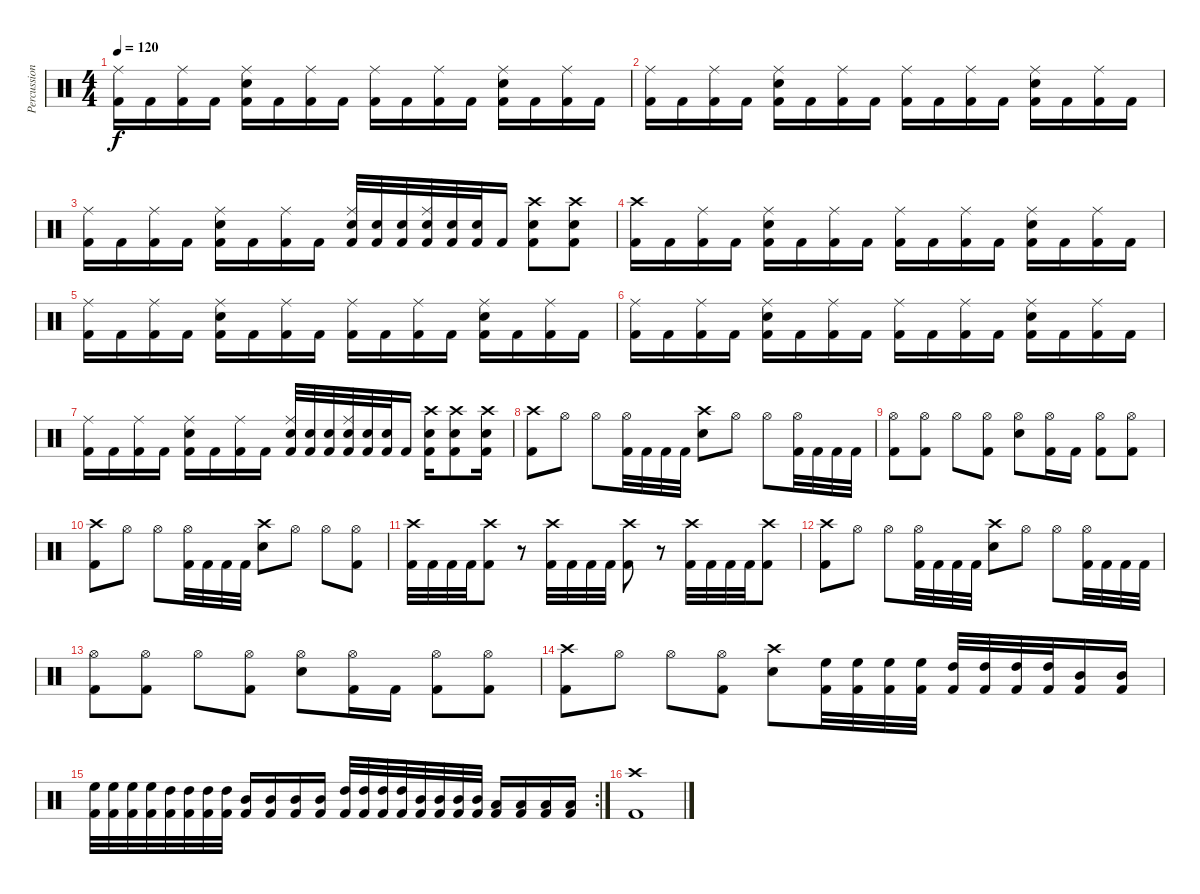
\track ("Percussion" "Percussion") {instrument percussion}
\staff {score}
\articulation defaults
\ts (4 4)
\tempo 120
\clef neutral
\ks c
("Kick (hit) 2" "Ride (middle)").16{dy f} "Kick (hit) 2".16 ("Kick (hit) 2" "Ride (middle)").16 "Kick (hit) 2".16 ("Kick (hit) 2" "Snare (hit) 2" "Ride (middle)").16 "Kick (hit) 2".16 ("Kick (hit) 2" "Ride (middle)").16 "Kick (hit) 2".16 ("Kick (hit) 2" "Ride (middle)").16 "Kick (hit) 2".16 ("Kick (hit) 2" "Ride (middle)").16 "Kick (hit) 2".16 ("Kick (hit) 2" "Snare (hit) 2" "Ride (middle)").16 "Kick (hit) 2".16 ("Kick (hit) 2" "Ride (middle)").16 "Kick (hit) 2".16 |
("Kick (hit) 2" "Ride (middle)").16 "Kick (hit) 2".16 ("Kick (hit) 2" "Ride (middle)").16 "Kick (hit) 2".16 ("Kick (hit) 2" "Snare (hit) 2" "Ride (middle)").16 "Kick (hit) 2".16 ("Kick (hit) 2" "Ride (middle)").16 "Kick (hit) 2".16 ("Kick (hit) 2" "Ride (middle)").16 "Kick (hit) 2".16 ("Kick (hit) 2" "Ride (middle)").16 "Kick (hit) 2".16 ("Kick (hit) 2" "Snare (hit) 2" "Ride (middle)").16 "Kick (hit) 2".16 ("Kick (hit) 2" "Ride (middle)").16 "Kick (hit) 2".16 |
("Kick (hit) 2" "Ride (middle)").16 "Kick (hit) 2".16 ("Kick (hit) 2" "Ride (middle)").16 "Kick (hit) 2".16 ("Kick (hit) 2" "Snare (hit) 2" "Ride (middle)").16 "Kick (hit) 2".16 ("Kick (hit) 2" "Ride (middle)").16 "Kick (hit) 2".16 ("Kick (hit) 2" "Snare (hit) 2" "Ride (middle)").32 ("Kick (hit) 2" "Snare (hit) 2").32 ("Kick (hit) 2" "Snare (hit) 2").32 ("Kick (hit) 2" "Snare (hit) 2" "Ride (middle)").32 ("Kick (hit) 2" "Snare (hit) 2").32 ("Kick (hit) 2" "Snare (hit) 2").32 "Kick (hit) 2".16 ("Kick (hit) 2" "Snare (hit) 2" "Crash high (hit)").8 ("Kick (hit) 2" "Snare (hit) 2" "Crash high (hit)").8 |
("Kick (hit) 2" "Crash high (hit)").16 "Kick (hit) 2".16 ("Kick (hit) 2" "Ride (middle)").16 "Kick (hit) 2".16 ("Kick (hit) 2" "Snare (hit) 2" "Ride (middle)").16 "Kick (hit) 2".16 ("Kick (hit) 2" "Ride (middle)").16 "Kick (hit) 2".16 ("Kick (hit) 2" "Ride (middle)").16 "Kick (hit) 2".16 ("Kick (hit) 2" "Ride (middle)").16 "Kick (hit) 2".16 ("Kick (hit) 2" "Snare (hit) 2" "Ride (middle)").16 "Kick (hit) 2".16 ("Kick (hit) 2" "Ride (middle)").16 "Kick (hit) 2".16 |
("Kick (hit) 2" "Ride (middle)").16 "Kick (hit) 2".16 ("Kick (hit) 2" "Ride (middle)").16 "Kick (hit) 2".16 ("Kick (hit) 2" "Snare (hit) 2" "Ride (middle)").16 "Kick (hit) 2".16 ("Kick (hit) 2" "Ride (middle)").16 "Kick (hit) 2".16 ("Kick (hit) 2" "Ride (middle)").16 "Kick (hit) 2".16 ("Kick (hit) 2" "Ride (middle)").16 "Kick (hit) 2".16 ("Kick (hit) 2" "Snare (hit) 2" "Ride (middle)").16 "Kick (hit) 2".16 ("Kick (hit) 2" "Ride (middle)").16 "Kick (hit) 2".16 |
("Kick (hit) 2" "Ride (middle)").16 "Kick (hit) 2".16 ("Kick (hit) 2" "Ride (middle)").16 "Kick (hit) 2".16 ("Kick (hit) 2" "Snare (hit) 2" "Ride (middle)").16 "Kick (hit) 2".16 ("Kick (hit) 2" "Ride (middle)").16 "Kick (hit) 2".16 ("Kick (hit) 2" "Ride (middle)").16 "Kick (hit) 2".16 ("Kick (hit) 2" "Ride (middle)").16 "Kick (hit) 2".16 ("Kick (hit) 2" "Snare (hit) 2" "Ride (middle)").16 "Kick (hit) 2".16 ("Kick (hit) 2" "Ride (middle)").16 "Kick (hit) 2".16 |
("Kick (hit) 2" "Ride (middle)").16 "Kick (hit) 2".16 ("Kick (hit) 2" "Ride (middle)").16 "Kick (hit) 2".16 ("Kick (hit) 2" "Snare (hit) 2" "Ride (middle)").16 "Kick (hit) 2".16 ("Kick (hit) 2" "Ride (middle)").16 "Kick (hit) 2".16 ("Kick (hit) 2" "Snare (hit) 2" "Ride (middle)").32 ("Kick (hit) 2" "Snare (hit) 2").32 ("Kick (hit) 2" "Snare (hit) 2").32 ("Kick (hit) 2" "Snare (hit) 2" "Ride (middle)").32 ("Kick (hit) 2" "Snare (hit) 2").32 ("Kick (hit) 2" "Snare (hit) 2").32 "Kick (hit) 2".16 ("Kick (hit) 2" "Snare (hit) 2" "Crash high (hit)").16 ("Kick (hit) 2" "Snare (hit) 2" "Crash high (hit)").8 ("Kick (hit) 2" "Snare (hit) 2" "Crash high (hit)").16 |
("Kick (hit) 2" "Crash high (hit)").8 "Hi-Hat (open)".8 "Hi-Hat (open)".8 ("Kick (hit) 2" "Hi-Hat (open)").32 "Kick (hit) 2".32 "Kick (hit) 2".32 "Kick (hit) 2".32 ("Snare (hit) 2" "Crash high (hit)").8 "Hi-Hat (open)".8 "Hi-Hat (open)".8 ("Kick (hit) 2" "Hi-Hat (open)").32 "Kick (hit) 2".32 "Kick (hit) 2".32 "Kick (hit) 2".32 |
("Kick (hit) 2" "Hi-Hat (open)").8 ("Kick (hit) 2" "Hi-Hat (open)").8 "Hi-Hat (open)".8 ("Kick (hit) 2" "Hi-Hat (open)").8 ("Snare (hit) 2" "Hi-Hat (open)").8 ("Kick (hit) 2" "Hi-Hat (open)").16 "Kick (hit) 2".16 ("Kick (hit) 2" "Hi-Hat (open)").8 ("Kick (hit) 2" "Hi-Hat (open)").8 |
("Kick (hit) 2" "Crash high (hit)").8 "Hi-Hat (open)".8 "Hi-Hat (open)".8 ("Kick (hit) 2" "Hi-Hat (open)").32 "Kick (hit) 2".32 "Kick (hit) 2".32 "Kick (hit) 2".32 ("Snare (hit) 2" "Crash high (hit)").8 "Hi-Hat (open)".8 "Hi-Hat (open)".8 ("Kick (hit) 2" "Hi-Hat (open)").8 |
("Kick (hit) 2" "Crash high (hit)").32 "Kick (hit) 2".32 "Kick (hit) 2".32 "Kick (hit) 2".32 ("Kick (hit) 2" "Crash high (hit)").8 r.8 ("Kick (hit) 2" "Crash high (hit)").32 "Kick (hit) 2".32 "Kick (hit) 2".32 "Kick (hit) 2".32 ("Kick (hit) 2" "Crash high (hit)").8 r.8 ("Kick (hit) 2" "Crash high (hit)").32 "Kick (hit) 2".32 "Kick (hit) 2".32 "Kick (hit) 2".32 ("Kick (hit) 2" "Crash high (hit)").8 |
("Kick (hit) 2" "Crash high (hit)").8 "Hi-Hat (open)".8 "Hi-Hat (open)".8 ("Kick (hit) 2" "Hi-Hat (open)").32 "Kick (hit) 2".32 "Kick (hit) 2".32 "Kick (hit) 2".32 ("Snare (hit) 2" "Crash high (hit)").8 "Hi-Hat (open)".8 "Hi-Hat (open)".8 ("Kick (hit) 2" "Hi-Hat (open)").32 "Kick (hit) 2".32 "Kick (hit) 2".32 "Kick (hit) 2".32 |
("Kick (hit) 2" "Hi-Hat (open)").8 ("Kick (hit) 2" "Hi-Hat (open)").8 "Hi-Hat (open)".8 ("Kick (hit) 2" "Hi-Hat (open)").8 ("Snare (hit) 2" "Hi-Hat (open)").8 ("Kick (hit) 2" "Hi-Hat (open)").16 "Kick (hit) 2".16 ("Kick (hit) 2" "Hi-Hat (open)").8 ("Kick (hit) 2" "Hi-Hat (open)").8 |
("Kick (hit) 2" "Crash high (hit)").8 "Hi-Hat (open)".8 "Hi-Hat (open)".8 ("Kick (hit) 2" "Hi-Hat (open)").8 ("Snare (hit) 2" "Crash high (hit)").8 ("Kick (hit) 2" "High Floor Tom (hit)").32 ("Kick (hit) 2" "High Floor Tom (hit)").32 ("Kick (hit) 2" "High Floor Tom (hit)").32 ("Kick (hit) 2" "High Floor Tom (hit)").32 ("Kick (hit) 2" "High Tom (hit)").32 ("Kick (hit) 2" "High Tom (hit)").32 ("Kick (hit) 2" "High Tom (hit)").32 ("Kick (hit) 2" "High Tom (hit)").32 ("Kick (hit) 2" "Mid Tom (hit)").16 ("Kick (hit) 2" "Mid Tom (hit)").16 |
\rc 2
("Kick (hit) 2" "High Floor Tom (hit)").32 ("Kick (hit) 2" "High Floor Tom (hit)").32 ("Kick (hit) 2" "High Floor Tom (hit)").32 ("Kick (hit) 2" "High Floor Tom (hit)").32 ("Kick (hit) 2" "High Tom (hit)").32 ("Kick (hit) 2" "High Tom (hit)").32 ("Kick (hit) 2" "High Tom (hit)").32 ("Kick (hit) 2" "High Tom (hit)").32 ("Kick (hit) 2" "Mid Tom (hit)").16 ("Kick (hit) 2" "Mid Tom (hit)").16 ("Kick (hit) 2" "Mid Tom (hit)").16 ("Kick (hit) 2" "Mid Tom (hit)").16 ("Kick (hit) 2" "High Tom (hit)").32 ("Kick (hit) 2" "High Tom (hit)").32 ("Kick (hit) 2" "High Tom (hit)").32 ("Kick (hit) 2" "High Tom (hit)").32 ("Kick (hit) 2" "Mid Tom (hit)").32 ("Kick (hit) 2" "Mid Tom (hit)").32 ("Kick (hit) 2" "Mid Tom (hit)").32 ("Kick (hit) 2" "Mid Tom (hit)").32 ("Kick (hit) 2" "Low Tom (hit)").16 ("Kick (hit) 2" "Low Tom (hit)").16 ("Kick (hit) 2" "Low Tom (hit)").16 ("Kick (hit) 2" "Low Tom (hit)").16 |
("Kick (hit) 2" "Crash high (hit)").1
